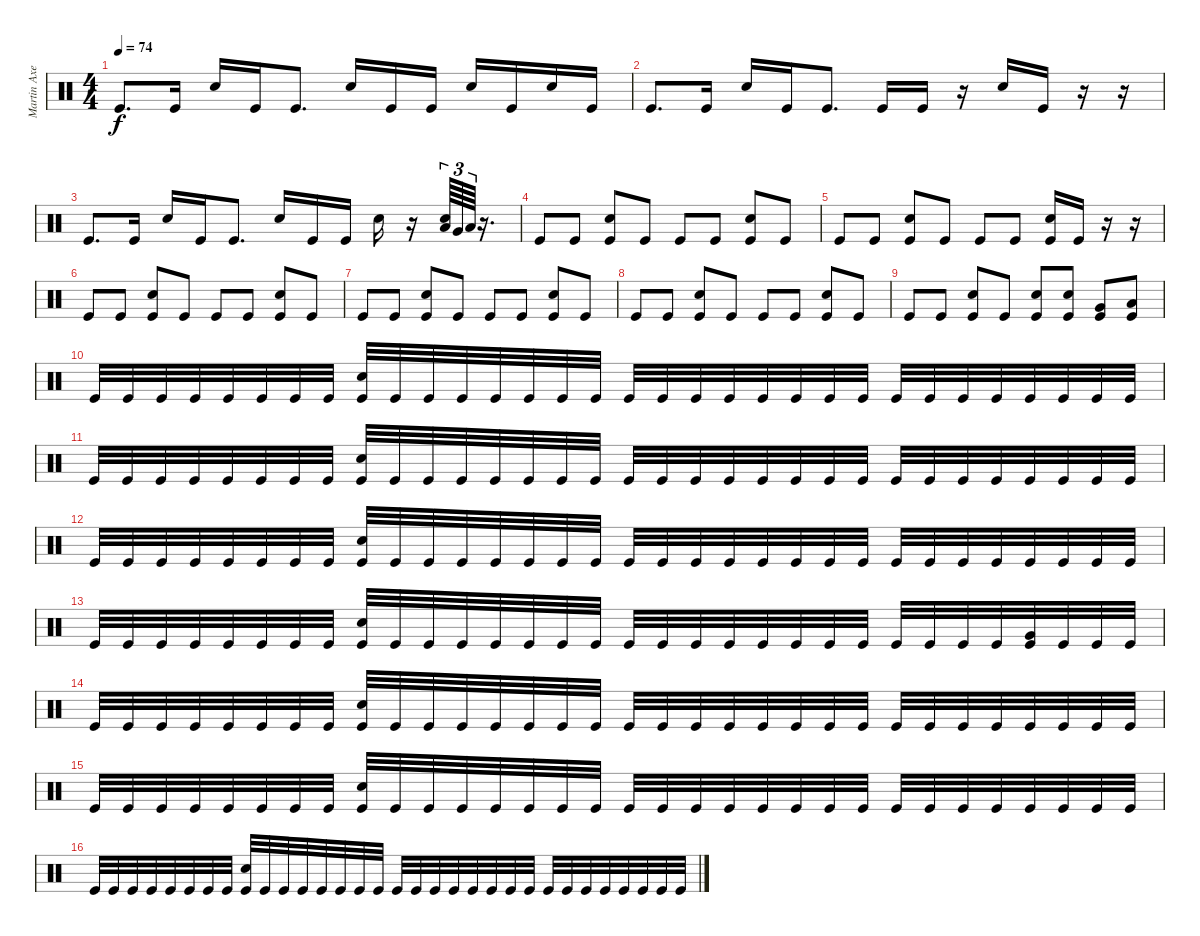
\track ("Martin Axenrot - Drums" "Martin Axe") {instrument percussion}
\staff {score}
\articulation defaults
\ts (4 4)
\tempo 74
\clef neutral
\ks c "Kick (hit)".8{d dy f} "Kick (hit)".16 "Snare (hit) 2".16 "Kick (hit)".16 "Kick (hit)".8{d} "Snare (hit) 2".16 "Kick (hit)".16 "Kick (hit)".16 "Snare (hit) 2".16 "Kick (hit)".16 "Snare (hit) 2".16 "Kick (hit)".16
|
"Kick (hit)".8{d} "Kick (hit)".16 "Snare (hit) 2".16 "Kick (hit)".16 "Kick (hit)".8{d} "Kick (hit)".16 "Kick (hit)".16 r.16 "Snare (hit) 2".16 "Kick (hit)".16 r.16 r.16 |
"Kick (hit)".8{d} "Kick (hit)".16 "Snare (hit) 2".16 "Kick (hit)".16 "Kick (hit)".8{d} "Snare (hit) 2".16 "Kick (hit)".16 "Kick (hit)".16 "Snare (hit) 2".16 r.16 ("Low Tom (hit)" "Snare (hit) 2").64{tu (3 2)} "Very Low Tom (hit)".64{tu (3 2)} "Low Floor Tom (hit)".64{tu (3 2)} r.16{d} |
"Kick (hit)".8 "Kick (hit)".8 ("Snare (hit) 2" "Kick (hit)").8 "Kick (hit)".8 "Kick (hit)".8 "Kick (hit)".8 ("Snare (hit) 2" "Kick (hit)").8 "Kick (hit)".8 |
"Kick (hit)".8 "Kick (hit)".8 ("Snare (hit) 2" "Kick (hit)").8 "Kick (hit)".8 "Kick (hit)".8 "Kick (hit)".8 ("Snare (hit) 2" "Kick (hit)").16 "Kick (hit)".16 r.16 r.16 |
"Kick (hit)".8 "Kick (hit)".8 ("Snare (hit) 2" "Kick (hit)").8 "Kick (hit)".8 "Kick (hit)".8 "Kick (hit)".8 ("Snare (hit) 2" "Kick (hit)").8 "Kick (hit)".8 |
"Kick (hit)".8 "Kick (hit)".8 ("Snare (hit) 2" "Kick (hit)").8 "Kick (hit)".8 "Kick (hit)".8 "Kick (hit)".8 ("Snare (hit) 2" "Kick (hit)").8 "Kick (hit)".8 |
"Kick (hit)".8 "Kick (hit)".8 ("Snare (hit) 2" "Kick (hit)").8 "Kick (hit)".8 "Kick (hit)".8 "Kick (hit)".8 ("Snare (hit) 2" "Kick (hit)").8 "Kick (hit)".8 |
"Kick (hit)".8 "Kick (hit)".8 ("Snare (hit) 2" "Kick (hit)").8 "Kick (hit)".8 ("Snare (hit) 2" "Kick (hit)").8 ("Snare (hit) 2" "Kick (hit)").8 ("Very Low Tom (hit)" "Kick (hit)").8 ("Low Floor Tom (hit)" "Kick (hit)").8 |
"Kick (hit)".32 "Kick (hit)".32 "Kick (hit)".32 "Kick (hit)".32 "Kick (hit)".32 "Kick (hit)".32 "Kick (hit)".32 "Kick (hit)".32 ("Snare (hit) 2" "Kick (hit)").32 "Kick (hit)".32 "Kick (hit)".32 "Kick (hit)".32 "Kick (hit)".32 "Kick (hit)".32 "Kick (hit)".32 "Kick (hit)".32 "Kick (hit)".32 "Kick (hit)".32 "Kick (hit)".32 "Kick (hit)".32 "Kick (hit)".32 "Kick (hit)".32 "Kick (hit)".32 "Kick (hit)".32 "Kick (hit)".32 "Kick (hit)".32 "Kick (hit)".32 "Kick (hit)".32 "Kick (hit)".32 "Kick (hit)".32 "Kick (hit)".32 "Kick (hit)".32 |
"Kick (hit)".32 "Kick (hit)".32 "Kick (hit)".32 "Kick (hit)".32 "Kick (hit)".32 "Kick (hit)".32 "Kick (hit)".32 "Kick (hit)".32 ("Snare (hit) 2" "Kick (hit)").32 "Kick (hit)".32 "Kick (hit)".32 "Kick (hit)".32 "Kick (hit)".32 "Kick (hit)".32 "Kick (hit)".32 "Kick (hit)".32 "Kick (hit)".32 "Kick (hit)".32 "Kick (hit)".32 "Kick (hit)".32 "Kick (hit)".32 "Kick (hit)".32 "Kick (hit)".32 "Kick (hit)".32 "Kick (hit)".32 "Kick (hit)".32 "Kick (hit)".32 "Kick (hit)".32 "Kick (hit)".32 "Kick (hit)".32 "Kick (hit)".32 "Kick (hit)".32 |
"Kick (hit)".32 "Kick (hit)".32 "Kick (hit)".32 "Kick (hit)".32 "Kick (hit)".32 "Kick (hit)".32 "Kick (hit)".32 "Kick (hit)".32 ("Snare (hit) 2" "Kick (hit)").32 "Kick (hit)".32 "Kick (hit)".32 "Kick (hit)".32 "Kick (hit)".32 "Kick (hit)".32 "Kick (hit)".32 "Kick (hit)".32 "Kick (hit)".32 "Kick (hit)".32 "Kick (hit)".32 "Kick (hit)".32 "Kick (hit)".32 "Kick (hit)".32 "Kick (hit)".32 "Kick (hit)".32 "Kick (hit)".32 "Kick (hit)".32 "Kick (hit)".32 "Kick (hit)".32 "Kick (hit)".32 "Kick (hit)".32 "Kick (hit)".32 "Kick (hit)".32 |
"Kick (hit)".32 "Kick (hit)".32 "Kick (hit)".32 "Kick (hit)".32 "Kick (hit)".32 "Kick (hit)".32 "Kick (hit)".32 "Kick (hit)".32 ("Snare (hit) 2" "Kick (hit)").32 "Kick (hit)".32 "Kick (hit)".32 "Kick (hit)".32 "Kick (hit)".32 "Kick (hit)".32 "Kick (hit)".32 "Kick (hit)".32 "Kick (hit)".32 "Kick (hit)".32 "Kick (hit)".32 "Kick (hit)".32 "Kick (hit)".32 "Kick (hit)".32 "Kick (hit)".32 "Kick (hit)".32 "Kick (hit)".32 "Kick (hit)".32 "Kick (hit)".32 "Kick (hit)".32 ("Very Low Tom (hit)" "Kick (hit)").32 "Kick (hit)".32 "Kick (hit)".32 "Kick (hit)".32 |
"Kick (hit)".32 "Kick (hit)".32 "Kick (hit)".32 "Kick (hit)".32 "Kick (hit)".32 "Kick (hit)".32 "Kick (hit)".32 "Kick (hit)".32 ("Snare (hit) 2" "Kick (hit)").32 "Kick (hit)".32 "Kick (hit)".32 "Kick (hit)".32 "Kick (hit)".32 "Kick (hit)".32 "Kick (hit)".32 "Kick (hit)".32 "Kick (hit)".32 "Kick (hit)".32 "Kick (hit)".32 "Kick (hit)".32 "Kick (hit)".32 "Kick (hit)".32 "Kick (hit)".32 "Kick (hit)".32 "Kick (hit)".32 "Kick (hit)".32 "Kick (hit)".32 "Kick (hit)".32 "Kick (hit)".32 "Kick (hit)".32 "Kick (hit)".32 "Kick (hit)".32 |
"Kick (hit)".32 "Kick (hit)".32 "Kick (hit)".32 "Kick (hit)".32 "Kick (hit)".32 "Kick (hit)".32 "Kick (hit)".32 "Kick (hit)".32 ("Snare (hit) 2" "Kick (hit)").32 "Kick (hit)".32 "Kick (hit)".32 "Kick (hit)".32 "Kick (hit)".32 "Kick (hit)".32 "Kick (hit)".32 "Kick (hit)".32 "Kick (hit)".32 "Kick (hit)".32 "Kick (hit)".32 "Kick (hit)".32 "Kick (hit)".32 "Kick (hit)".32 "Kick (hit)".32 "Kick (hit)".32 "Kick (hit)".32 "Kick (hit)".32 "Kick (hit)".32 "Kick (hit)".32 "Kick (hit)".32 "Kick (hit)".32 "Kick (hit)".32 "Kick (hit)".32 |
"Kick (hit)".32 "Kick (hit)".32 "Kick (hit)".32 "Kick (hit)".32 "Kick (hit)".32 "Kick (hit)".32 "Kick (hit)".32 "Kick (hit)".32 ("Snare (hit) 2" "Kick (hit)").32 "Kick (hit)".32 "Kick (hit)".32 "Kick (hit)".32 "Kick (hit)".32 "Kick (hit)".32 "Kick (hit)".32 "Kick (hit)".32 "Kick (hit)".32 "Kick (hit)".32 "Kick (hit)".32 "Kick (hit)".32 "Kick (hit)".32 "Kick (hit)".32 "Kick (hit)".32 "Kick (hit)".32 "Kick (hit)".32 "Kick (hit)".32 "Kick (hit)".32 "Kick (hit)".32 "Kick (hit)".32 "Kick (hit)".32 "Kick (hit)".32 "Kick (hit)".32
